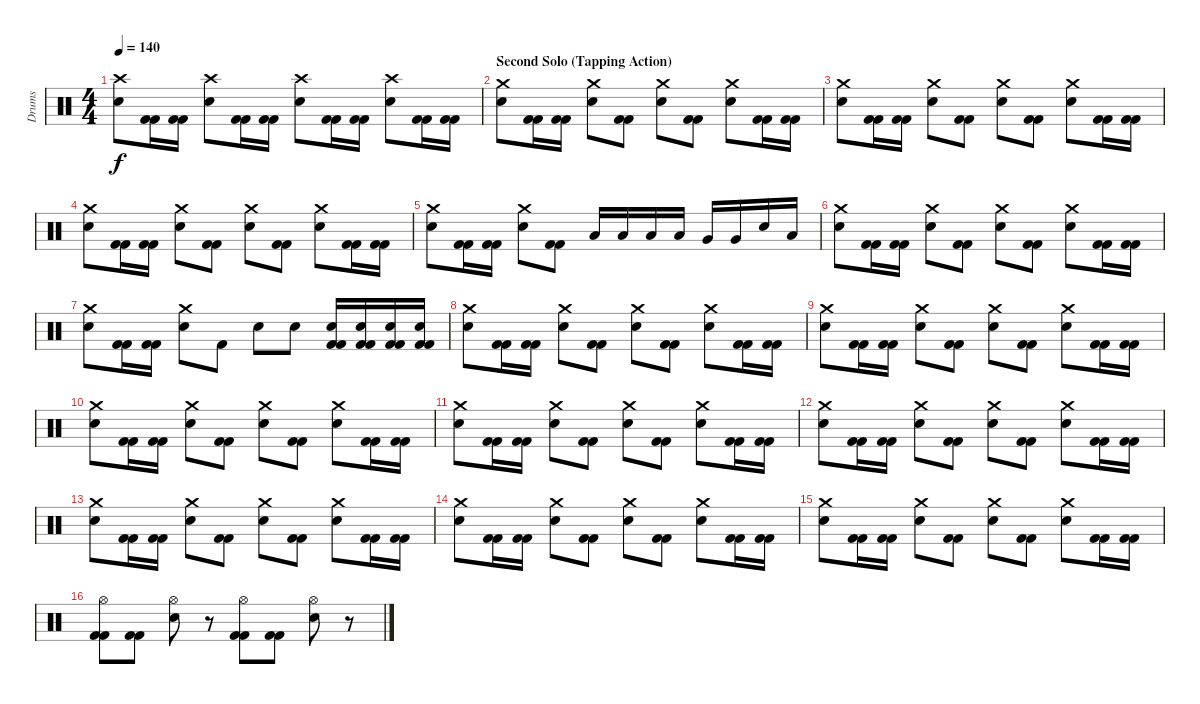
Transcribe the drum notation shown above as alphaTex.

\track ("Drums" "Drums") {instrument percussion}
\staff {score}
\articulation defaults
\ts (4 4)
\tempo 140
\clef neutral
\ks c
("Crash high (hit)" "Electric Snare (hit)").8{dy f} ("Kick (hit) 2" "Kick (hit) 2").16 ("Kick (hit) 2" "Kick (hit) 2").16 ("Crash high (hit)" "Electric Snare (hit)").8 ("Kick (hit) 2" "Kick (hit) 2").16 ("Kick (hit) 2" "Kick (hit) 2").16 ("Crash high (hit)" "Electric Snare (hit)").8 ("Kick (hit) 2" "Kick (hit) 2").16 ("Kick (hit) 2" "Kick (hit) 2").16 ("Crash high (hit)" "Electric Snare (hit)").8 ("Kick (hit) 2" "Kick (hit) 2").16 ("Kick (hit) 2" "Kick (hit) 2").16 |
\section ("" "Second Solo (Tapping Action)")
("Crash medium (hit)" "Electric Snare (hit)").8 ("Kick (hit) 2" "Kick (hit) 2").16 ("Kick (hit) 2" "Kick (hit) 2").16 ("Electric Snare (hit)" "Crash medium (hit)").8 ("Kick (hit) 2" "Kick (hit) 2").8 ("Electric Snare (hit)" "Crash medium (hit)").8 ("Kick (hit) 2" "Kick (hit) 2").8 ("Electric Snare (hit)" "Crash medium (hit)").8 ("Kick (hit) 2" "Kick (hit) 2").16 ("Kick (hit) 2" "Kick (hit) 2").16 |
("Crash medium (hit)" "Electric Snare (hit)").8 ("Kick (hit) 2" "Kick (hit) 2").16 ("Kick (hit) 2" "Kick (hit) 2").16 ("Electric Snare (hit)" "Crash medium (hit)").8 ("Kick (hit) 2" "Kick (hit) 2").8 ("Electric Snare (hit)" "Crash medium (hit)").8 ("Kick (hit) 2" "Kick (hit) 2").8 ("Electric Snare (hit)" "Crash medium (hit)").8 ("Kick (hit) 2" "Kick (hit) 2").16 ("Kick (hit) 2" "Kick (hit) 2").16 |
("Crash medium (hit)" "Electric Snare (hit)").8 ("Kick (hit) 2" "Kick (hit) 2").16 ("Kick (hit) 2" "Kick (hit) 2").16 ("Electric Snare (hit)" "Crash medium (hit)").8 ("Kick (hit) 2" "Kick (hit) 2").8 ("Electric Snare (hit)" "Crash medium (hit)").8 ("Kick (hit) 2" "Kick (hit) 2").8 ("Electric Snare (hit)" "Crash medium (hit)").8 ("Kick (hit) 2" "Kick (hit) 2").16 ("Kick (hit) 2" "Kick (hit) 2").16 |
("Crash medium (hit)" "Electric Snare (hit)").8 ("Kick (hit) 2" "Kick (hit) 2").16 ("Kick (hit) 2" "Kick (hit) 2").16 ("Electric Snare (hit)" "Crash medium (hit)").8 ("Kick (hit) 2" "Kick (hit) 2").8 "Low Tom (hit)".16 "Low Tom (hit)".16 "Low Tom (hit)".16 "Low Tom (hit)".16 "Very Low Tom (hit)".16 "Very Low Tom (hit)".16 "Electric Snare (hit)".16 "Low Tom (hit)".16 |
("Crash medium (hit)" "Electric Snare (hit)").8 ("Kick (hit) 2" "Kick (hit) 2").16 ("Kick (hit) 2" "Kick (hit) 2").16 ("Electric Snare (hit)" "Crash medium (hit)").8 ("Kick (hit) 2" "Kick (hit) 2").8 ("Electric Snare (hit)" "Crash medium (hit)").8 ("Kick (hit) 2" "Kick (hit) 2").8 ("Electric Snare (hit)" "Crash medium (hit)").8 ("Kick (hit) 2" "Kick (hit) 2").16 ("Kick (hit) 2" "Kick (hit) 2").16 |
("Crash medium (hit)" "Electric Snare (hit)").8 ("Kick (hit) 2" "Kick (hit) 2").16 ("Kick (hit) 2" "Kick (hit) 2").16 ("Electric Snare (hit)" "Crash medium (hit)").8 "Kick (hit) 2".8 "Electric Snare (hit)".8 "Electric Snare (hit)".8 ("Kick (hit) 2" "Kick (hit) 2" "Electric Snare (hit)").16 ("Electric Snare (hit)" "Kick (hit) 2" "Kick (hit) 2").16 ("Kick (hit) 2" "Kick (hit) 2" "Electric Snare (hit)").16 ("Kick (hit) 2" "Kick (hit) 2" "Electric Snare (hit)").16 |
("Crash medium (hit)" "Electric Snare (hit)").8 ("Kick (hit) 2" "Kick (hit) 2").16 ("Kick (hit) 2" "Kick (hit) 2").16 ("Electric Snare (hit)" "Crash medium (hit)").8 ("Kick (hit) 2" "Kick (hit) 2").8 ("Electric Snare (hit)" "Crash medium (hit)").8 ("Kick (hit) 2" "Kick (hit) 2").8 ("Electric Snare (hit)" "Crash medium (hit)").8 ("Kick (hit) 2" "Kick (hit) 2").16 ("Kick (hit) 2" "Kick (hit) 2").16 |
("Crash medium (hit)" "Electric Snare (hit)").8 ("Kick (hit) 2" "Kick (hit) 2").16 ("Kick (hit) 2" "Kick (hit) 2").16 ("Electric Snare (hit)" "Crash medium (hit)").8 ("Kick (hit) 2" "Kick (hit) 2").8 ("Electric Snare (hit)" "Crash medium (hit)").8 ("Kick (hit) 2" "Kick (hit) 2").8 ("Electric Snare (hit)" "Crash medium (hit)").8 ("Kick (hit) 2" "Kick (hit) 2").16 ("Kick (hit) 2" "Kick (hit) 2").16 |
("Crash medium (hit)" "Electric Snare (hit)").8 ("Kick (hit) 2" "Kick (hit) 2").16 ("Kick (hit) 2" "Kick (hit) 2").16 ("Electric Snare (hit)" "Crash medium (hit)").8 ("Kick (hit) 2" "Kick (hit) 2").8 ("Electric Snare (hit)" "Crash medium (hit)").8 ("Kick (hit) 2" "Kick (hit) 2").8 ("Electric Snare (hit)" "Crash medium (hit)").8 ("Kick (hit) 2" "Kick (hit) 2").16 ("Kick (hit) 2" "Kick (hit) 2").16 |
("Crash medium (hit)" "Electric Snare (hit)").8 ("Kick (hit) 2" "Kick (hit) 2").16 ("Kick (hit) 2" "Kick (hit) 2").16 ("Electric Snare (hit)" "Crash medium (hit)").8 ("Kick (hit) 2" "Kick (hit) 2").8 ("Electric Snare (hit)" "Crash medium (hit)").8 ("Kick (hit) 2" "Kick (hit) 2").8 ("Electric Snare (hit)" "Crash medium (hit)").8 ("Kick (hit) 2" "Kick (hit) 2").16 ("Kick (hit) 2" "Kick (hit) 2").16 |
("Crash medium (hit)" "Electric Snare (hit)").8 ("Kick (hit) 2" "Kick (hit) 2").16 ("Kick (hit) 2" "Kick (hit) 2").16 ("Electric Snare (hit)" "Crash medium (hit)").8 ("Kick (hit) 2" "Kick (hit) 2").8 ("Electric Snare (hit)" "Crash medium (hit)").8 ("Kick (hit) 2" "Kick (hit) 2").8 ("Electric Snare (hit)" "Crash medium (hit)").8 ("Kick (hit) 2" "Kick (hit) 2").16 ("Kick (hit) 2" "Kick (hit) 2").16 |
("Crash medium (hit)" "Electric Snare (hit)").8 ("Kick (hit) 2" "Kick (hit) 2").16 ("Kick (hit) 2" "Kick (hit) 2").16 ("Electric Snare (hit)" "Crash medium (hit)").8 ("Kick (hit) 2" "Kick (hit) 2").8 ("Electric Snare (hit)" "Crash medium (hit)").8 ("Kick (hit) 2" "Kick (hit) 2").8 ("Electric Snare (hit)" "Crash medium (hit)").8 ("Kick (hit) 2" "Kick (hit) 2").16 ("Kick (hit) 2" "Kick (hit) 2").16 |
("Crash medium (hit)" "Electric Snare (hit)").8 ("Kick (hit) 2" "Kick (hit) 2").16 ("Kick (hit) 2" "Kick (hit) 2").16 ("Electric Snare (hit)" "Crash medium (hit)").8 ("Kick (hit) 2" "Kick (hit) 2").8 ("Electric Snare (hit)" "Crash medium (hit)").8 ("Kick (hit) 2" "Kick (hit) 2").8 ("Electric Snare (hit)" "Crash medium (hit)").8 ("Kick (hit) 2" "Kick (hit) 2").16 ("Kick (hit) 2" "Kick (hit) 2").16 |
("Crash medium (hit)" "Electric Snare (hit)").8 ("Kick (hit) 2" "Kick (hit) 2").16 ("Kick (hit) 2" "Kick (hit) 2").16 ("Electric Snare (hit)" "Crash medium (hit)").8 ("Kick (hit) 2" "Kick (hit) 2").8 ("Electric Snare (hit)" "Crash medium (hit)").8 ("Kick (hit) 2" "Kick (hit) 2").8 ("Electric Snare (hit)" "Crash medium (hit)").8 ("Kick (hit) 2" "Kick (hit) 2").16 ("Kick (hit) 2" "Kick (hit) 2").16 |
("Kick (hit) 2" "Kick (hit) 2" "Hi-Hat (open)").8 ("Kick (hit) 2" "Kick (hit) 2").8 ("Electric Snare (hit)" "Hi-Hat (open)").8 r.8 ("Kick (hit) 2" "Kick (hit) 2" "Hi-Hat (open)").8 ("Kick (hit) 2" "Kick (hit) 2").8 ("Hi-Hat (open)" "Electric Snare (hit)").8 r.8
